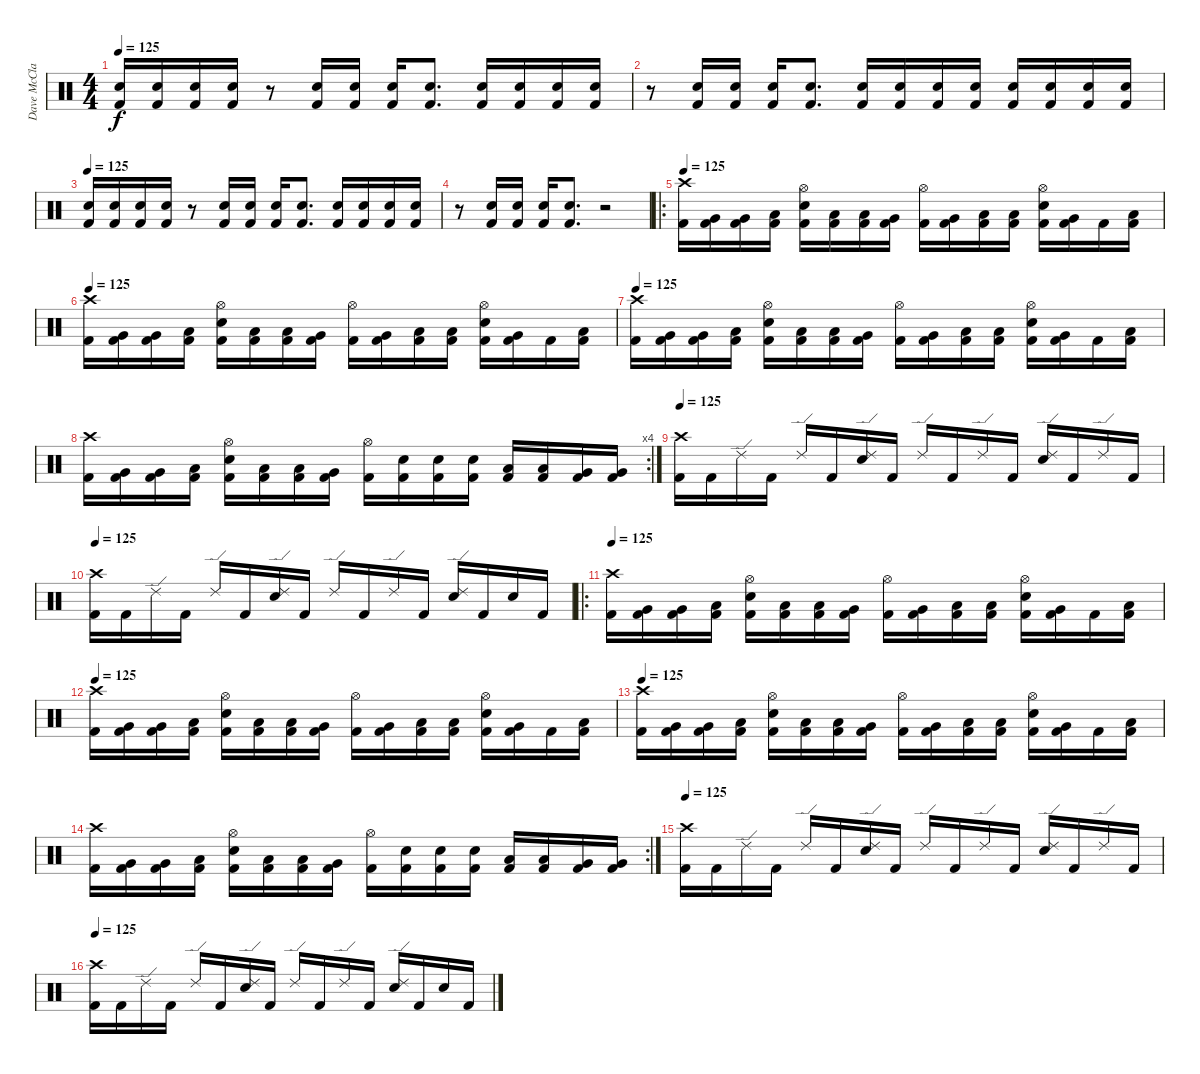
\track ("Dave McClain" "Dave McCla") {instrument percussion}
\staff {score}
\articulation defaults
\ts (4 4)
\tempo 125
\clef neutral
\ks c
("Kick (hit) 2" "Snare (hit) 2").16{dy f} ("Kick (hit) 2" "Snare (hit) 2").16 ("Kick (hit) 2" "Snare (hit) 2").16 ("Kick (hit) 2" "Snare (hit) 2").16 r.8 ("Kick (hit) 2" "Snare (hit) 2").16 ("Kick (hit) 2" "Snare (hit) 2").16 ("Kick (hit) 2" "Snare (hit) 2").16 ("Kick (hit) 2" "Snare (hit) 2").8{d} ("Kick (hit) 2" "Snare (hit) 2").16 ("Kick (hit) 2" "Snare (hit) 2").16 ("Kick (hit) 2" "Snare (hit) 2").16 ("Kick (hit) 2" "Snare (hit) 2").16 |
r.8 ("Kick (hit) 2" "Snare (hit) 2").16 ("Kick (hit) 2" "Snare (hit) 2").16 ("Kick (hit) 2" "Snare (hit) 2").16 ("Kick (hit) 2" "Snare (hit) 2").8{d} ("Kick (hit) 2" "Snare (hit) 2").16 ("Kick (hit) 2" "Snare (hit) 2").16 ("Kick (hit) 2" "Snare (hit) 2").16 ("Kick (hit) 2" "Snare (hit) 2").16 ("Kick (hit) 2" "Snare (hit) 2").16 ("Kick (hit) 2" "Snare (hit) 2").16 ("Kick (hit) 2" "Snare (hit) 2").16 ("Kick (hit) 2" "Snare (hit) 2").16 |
\tempo 125
("Kick (hit) 2" "Snare (hit) 2").16 ("Kick (hit) 2" "Snare (hit) 2").16 ("Kick (hit) 2" "Snare (hit) 2").16 ("Kick (hit) 2" "Snare (hit) 2").16 r.8 ("Kick (hit) 2" "Snare (hit) 2").16 ("Kick (hit) 2" "Snare (hit) 2").16 ("Kick (hit) 2" "Snare (hit) 2").16 ("Kick (hit) 2" "Snare (hit) 2").8{d} ("Kick (hit) 2" "Snare (hit) 2").16 ("Kick (hit) 2" "Snare (hit) 2").16 ("Kick (hit) 2" "Snare (hit) 2").16 ("Kick (hit) 2" "Snare (hit) 2").16 |
r.8 ("Kick (hit) 2" "Snare (hit) 2").16 ("Kick (hit) 2" "Snare (hit) 2").16 ("Kick (hit) 2" "Snare (hit) 2").16 ("Kick (hit) 2" "Snare (hit) 2").8{d} r.2 |
\ro
\tempo 125
("Crash high (hit)" "Kick (hit) 2").16 ("Very Low Tom (hit)" "Kick (hit) 2").16 ("Very Low Tom (hit)" "Kick (hit) 2").16 ("Low Floor Tom (hit)" "Kick (hit) 2").16 ("Hi-Hat (open)" "Snare (hit) 2" "Kick (hit) 2").16 ("Low Tom (hit)" "Kick (hit) 2").16 ("Low Tom (hit)" "Kick (hit) 2").16 ("Very Low Tom (hit)" "Kick (hit) 2").16 ("Hi-Hat (open)" "Kick (hit) 2").16 ("Very Low Tom (hit)" "Kick (hit) 2").16 ("Low Floor Tom (hit)" "Kick (hit) 2").16 ("Low Floor Tom (hit)" "Kick (hit) 2").16 ("Hi-Hat (open)" "Snare (hit) 2" "Kick (hit) 2").16 ("Very Low Tom (hit)" "Kick (hit) 2").16 "Kick (hit) 2".16 ("Low Floor Tom (hit)" "Kick (hit) 2").16 |
\tempo 125
("Crash high (hit)" "Kick (hit) 2").16 ("Very Low Tom (hit)" "Kick (hit) 2").16 ("Very Low Tom (hit)" "Kick (hit) 2").16 ("Low Floor Tom (hit)" "Kick (hit) 2").16 ("Hi-Hat (open)" "Snare (hit) 2" "Kick (hit) 2").16 ("Low Tom (hit)" "Kick (hit) 2").16 ("Low Tom (hit)" "Kick (hit) 2").16 ("Very Low Tom (hit)" "Kick (hit) 2").16 ("Hi-Hat (open)" "Kick (hit) 2").16 ("Very Low Tom (hit)" "Kick (hit) 2").16 ("Low Floor Tom (hit)" "Kick (hit) 2").16 ("Low Floor Tom (hit)" "Kick (hit) 2").16 ("Hi-Hat (open)" "Snare (hit) 2" "Kick (hit) 2").16 ("Very Low Tom (hit)" "Kick (hit) 2").16 "Kick (hit) 2".16 ("Low Floor Tom (hit)" "Kick (hit) 2").16 |
\tempo 125
("Crash high (hit)" "Kick (hit) 2").16 ("Very Low Tom (hit)" "Kick (hit) 2").16 ("Very Low Tom (hit)" "Kick (hit) 2").16 ("Low Floor Tom (hit)" "Kick (hit) 2").16 ("Hi-Hat (open)" "Snare (hit) 2" "Kick (hit) 2").16 ("Low Tom (hit)" "Kick (hit) 2").16 ("Low Tom (hit)" "Kick (hit) 2").16 ("Very Low Tom (hit)" "Kick (hit) 2").16 ("Hi-Hat (open)" "Kick (hit) 2").16 ("Very Low Tom (hit)" "Kick (hit) 2").16 ("Low Floor Tom (hit)" "Kick (hit) 2").16 ("Low Floor Tom (hit)" "Kick (hit) 2").16 ("Hi-Hat (open)" "Snare (hit) 2" "Kick (hit) 2").16 ("Very Low Tom (hit)" "Kick (hit) 2").16 "Kick (hit) 2".16 ("Low Floor Tom (hit)" "Kick (hit) 2").16 |
\rc 4
("Crash high (hit)" "Kick (hit) 2").16 ("Very Low Tom (hit)" "Kick (hit) 2").16 ("Very Low Tom (hit)" "Kick (hit) 2").16 ("Low Floor Tom (hit)" "Kick (hit) 2").16 ("Hi-Hat (open)" "Snare (hit) 2" "Kick (hit) 2").16 ("Low Tom (hit)" "Kick (hit) 2").16 ("Low Tom (hit)" "Kick (hit) 2").16 ("Very Low Tom (hit)" "Kick (hit) 2").16 ("Hi-Hat (open)" "Kick (hit) 2").16 ("Snare (hit) 2" "Kick (hit) 2").16 ("Snare (hit) 2" "Kick (hit) 2").16 ("Snare (hit) 2" "Kick (hit) 2").16 ("Low Tom (hit)" "Kick (hit) 2").16 ("Low Tom (hit)" "Kick (hit) 2").16 ("Very Low Tom (hit)" "Kick (hit) 2").16 ("Very Low Tom (hit)" "Kick (hit) 2").16 |
\tempo 125
("Crash high (hit)" "Kick (hit) 2").16 "Kick (hit) 2".16 "Ride (edge) 2".16 "Kick (hit) 2".16 "Ride (edge) 2".16 "Kick (hit) 2".16 ("Ride (edge) 2" "Snare (hit) 2").16 "Kick (hit) 2".16 "Ride (edge) 2".16 "Kick (hit) 2".16 "Ride (edge) 2".16 "Kick (hit) 2".16 ("Ride (edge) 2" "Snare (hit) 2").16 "Kick (hit) 2".16 "Ride (edge) 2".16 "Kick (hit) 2".16 |
\tempo 125
("Crash high (hit)" "Kick (hit) 2").16 "Kick (hit) 2".16 "Ride (edge) 2".16 "Kick (hit) 2".16 "Ride (edge) 2".16 "Kick (hit) 2".16 ("Ride (edge) 2" "Snare (hit) 2").16 "Kick (hit) 2".16 "Ride (edge) 2".16 "Kick (hit) 2".16 "Ride (edge) 2".16 "Kick (hit) 2".16 ("Ride (edge) 2" "Snare (hit) 2").16 "Kick (hit) 2".16 "Snare (hit) 2".16 "Kick (hit) 2".16 |
\ro
\tempo 125
("Crash high (hit)" "Kick (hit) 2").16 ("Very Low Tom (hit)" "Kick (hit) 2").16 ("Very Low Tom (hit)" "Kick (hit) 2").16 ("Low Floor Tom (hit)" "Kick (hit) 2").16 ("Hi-Hat (open)" "Snare (hit) 2" "Kick (hit) 2").16 ("Low Tom (hit)" "Kick (hit) 2").16 ("Low Tom (hit)" "Kick (hit) 2").16 ("Very Low Tom (hit)" "Kick (hit) 2").16 ("Hi-Hat (open)" "Kick (hit) 2").16 ("Very Low Tom (hit)" "Kick (hit) 2").16 ("Low Floor Tom (hit)" "Kick (hit) 2").16 ("Low Floor Tom (hit)" "Kick (hit) 2").16 ("Hi-Hat (open)" "Snare (hit) 2" "Kick (hit) 2").16 ("Very Low Tom (hit)" "Kick (hit) 2").16 "Kick (hit) 2".16 ("Low Floor Tom (hit)" "Kick (hit) 2").16 |
\tempo 125
("Crash high (hit)" "Kick (hit) 2").16 ("Very Low Tom (hit)" "Kick (hit) 2").16 ("Very Low Tom (hit)" "Kick (hit) 2").16 ("Low Floor Tom (hit)" "Kick (hit) 2").16 ("Hi-Hat (open)" "Snare (hit) 2" "Kick (hit) 2").16 ("Low Tom (hit)" "Kick (hit) 2").16 ("Low Tom (hit)" "Kick (hit) 2").16 ("Very Low Tom (hit)" "Kick (hit) 2").16 ("Hi-Hat (open)" "Kick (hit) 2").16 ("Very Low Tom (hit)" "Kick (hit) 2").16 ("Low Floor Tom (hit)" "Kick (hit) 2").16 ("Low Floor Tom (hit)" "Kick (hit) 2").16 ("Hi-Hat (open)" "Snare (hit) 2" "Kick (hit) 2").16 ("Very Low Tom (hit)" "Kick (hit) 2").16 "Kick (hit) 2".16 ("Low Floor Tom (hit)" "Kick (hit) 2").16 |
\tempo 125
("Crash high (hit)" "Kick (hit) 2").16 ("Very Low Tom (hit)" "Kick (hit) 2").16 ("Very Low Tom (hit)" "Kick (hit) 2").16 ("Low Floor Tom (hit)" "Kick (hit) 2").16 ("Hi-Hat (open)" "Snare (hit) 2" "Kick (hit) 2").16 ("Low Tom (hit)" "Kick (hit) 2").16 ("Low Tom (hit)" "Kick (hit) 2").16 ("Very Low Tom (hit)" "Kick (hit) 2").16 ("Hi-Hat (open)" "Kick (hit) 2").16 ("Very Low Tom (hit)" "Kick (hit) 2").16 ("Low Floor Tom (hit)" "Kick (hit) 2").16 ("Low Floor Tom (hit)" "Kick (hit) 2").16 ("Hi-Hat (open)" "Snare (hit) 2" "Kick (hit) 2").16 ("Very Low Tom (hit)" "Kick (hit) 2").16 "Kick (hit) 2".16 ("Low Floor Tom (hit)" "Kick (hit) 2").16 |
\rc 2
("Crash high (hit)" "Kick (hit) 2").16 ("Very Low Tom (hit)" "Kick (hit) 2").16 ("Very Low Tom (hit)" "Kick (hit) 2").16 ("Low Floor Tom (hit)" "Kick (hit) 2").16 ("Hi-Hat (open)" "Snare (hit) 2" "Kick (hit) 2").16 ("Low Tom (hit)" "Kick (hit) 2").16 ("Low Tom (hit)" "Kick (hit) 2").16 ("Very Low Tom (hit)" "Kick (hit) 2").16 ("Hi-Hat (open)" "Kick (hit) 2").16 ("Snare (hit) 2" "Kick (hit) 2").16 ("Snare (hit) 2" "Kick (hit) 2").16 ("Snare (hit) 2" "Kick (hit) 2").16 ("Low Tom (hit)" "Kick (hit) 2").16 ("Low Tom (hit)" "Kick (hit) 2").16 ("Very Low Tom (hit)" "Kick (hit) 2").16 ("Very Low Tom (hit)" "Kick (hit) 2").16 |
\tempo 125
("Crash high (hit)" "Kick (hit) 2").16 "Kick (hit) 2".16 "Ride (edge) 2".16 "Kick (hit) 2".16 "Ride (edge) 2".16 "Kick (hit) 2".16 ("Ride (edge) 2" "Snare (hit) 2").16 "Kick (hit) 2".16 "Ride (edge) 2".16 "Kick (hit) 2".16 "Ride (edge) 2".16 "Kick (hit) 2".16 ("Ride (edge) 2" "Snare (hit) 2").16 "Kick (hit) 2".16 "Ride (edge) 2".16 "Kick (hit) 2".16 |
\tempo 125
("Crash high (hit)" "Kick (hit) 2").16 "Kick (hit) 2".16 "Ride (edge) 2".16 "Kick (hit) 2".16 "Ride (edge) 2".16 "Kick (hit) 2".16 ("Ride (edge) 2" "Snare (hit) 2").16 "Kick (hit) 2".16 "Ride (edge) 2".16 "Kick (hit) 2".16 "Ride (edge) 2".16 "Kick (hit) 2".16 ("Ride (edge) 2" "Snare (hit) 2").16 "Kick (hit) 2".16 "Snare (hit) 2".16 "Kick (hit) 2".16
